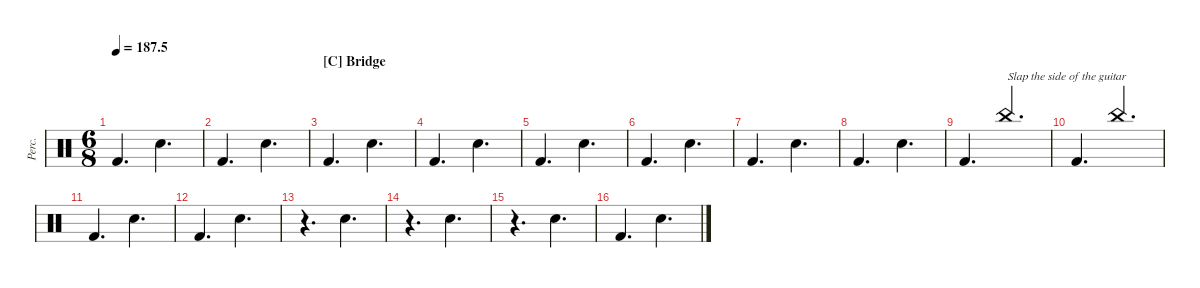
\defaultSystemsLayout 4
\hideDynamics
\bracketExtendMode groupsimilarinstruments
\otherSystemsTrackNameOrientation horizontal
\track ("Percussions" "Perc.") {instrument percussion}
\staff {score}
\articulation defaults
\ts (6 8)
\tempo
187.5
\accidentals auto
\clef neutral
\ottava regular
\simile none
\ks c "Kick (hit) 2".4{d dy mf beam Up} "Snare (hit) 2".4{d beam Down}
|
"Kick (hit) 2".4{d beam Up} "Snare (hit) 2".4{d beam Down} |
\section ("C" "Bridge")
"Kick (hit) 2".4{d beam Up} "Snare (hit) 2".4{d beam Down} |
"Kick (hit) 2".4{d beam Up} "Snare (hit) 2".4{d beam Down} |
"Kick (hit) 2".4{d beam Up} "Snare (hit) 2".4{d beam Down} |
"Kick (hit) 2".4{d beam Up} "Snare (hit) 2".4{d beam Down} |
"Kick (hit) 2".4{d beam Up} "Snare (hit) 2".4{d beam Down} |
"Kick (hit) 2".4{d beam Up} "Snare (hit) 2".4{d beam Down} |
"Kick (hit) 2".4{d beam Up} "China (hit)".4{d txt "Slap the side of the guitar" beam Up} |
"Kick (hit) 2".4{d beam Up} "China (hit)".4{d beam Up} |
"Kick (hit) 2".4{d beam Up} "Snare (hit) 2".4{d beam Down} |
"Kick (hit) 2".4{d beam Up} "Snare (hit) 2".4{d beam Down} |
r.4{d beam Down} "Snare (hit) 2".4{d beam Down} |
r.4{d beam Down} "Snare (hit) 2".4{d beam Down} |
r.4{d beam Down} "Snare (hit) 2".4{d beam Down} |
"Kick (hit) 2".4{d beam Up} "Snare (hit) 2".4{d beam Down}
